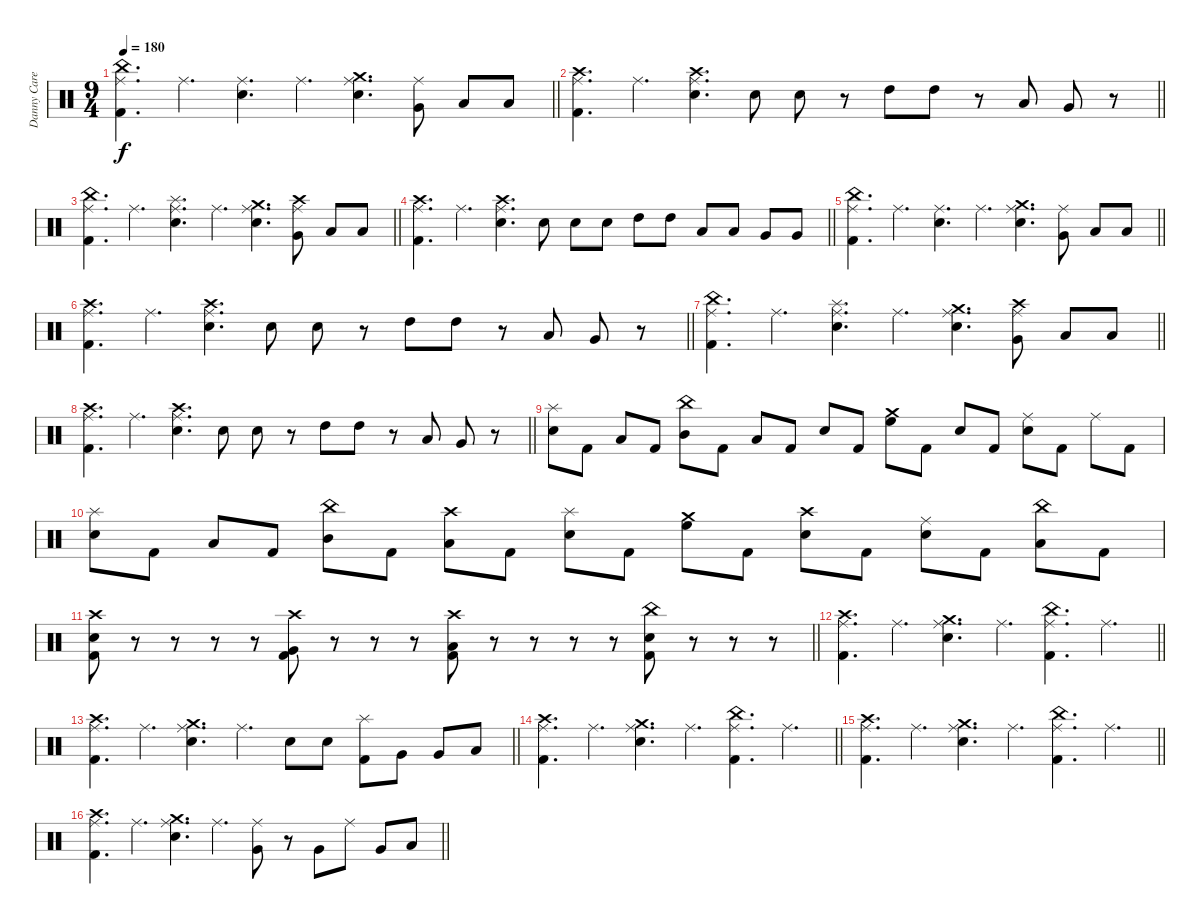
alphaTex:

\track ("Danny Carey" "Danny Care") {instrument percussion}
\staff {score}
\articulation defaults
\ts (9 4)
\tempo 180
\clef neutral
\barLineRight lightlight
\ks c
("China (hit)" "Ride (middle)" "Kick (hit) 2").4{d dy f} "Ride (middle)".4{d} ("Ride (middle)" "Electric Snare (hit)").4{d} "Ride (middle)".4{d} ("Crash medium (hit)" "Ride (middle)" "Electric Snare (hit)").4{d} ("Ride (middle)" "Very Low Tom (hit)").8 "Low Floor Tom (hit)".8 "Low Floor Tom (hit)".8 |
\barLineRight lightlight
("Crash high (hit)" "Ride (middle)" "Kick (hit) 2").4{d} "Ride (middle)".4{d} ("Crash high (hit)" "Ride (middle)" "Electric Snare (hit)").4{d} "Electric Snare (hit)".8 "Electric Snare (hit)".8 r.8 "High Tom (hit)".8 "High Tom (hit)".8 r.8 "Low Tom (hit)".8 "Very Low Tom (hit)".8 r.8 |
\barLineRight lightlight
("China (hit)" "Ride (middle)" "Kick (hit) 2").4{d} "Ride (middle)".4{d} ("Splash (hit)" "Ride (middle)" "Electric Snare (hit)").4{d} "Ride (middle)".4{d} ("Crash medium (hit)" "Ride (middle)" "Electric Snare (hit)").4{d} ("Crash high (hit)" "Ride (middle)" "Very Low Tom (hit)").8 "Low Floor Tom (hit)".8 "Low Floor Tom (hit)".8 |
\barLineRight lightlight
("Crash high (hit)" "Ride (middle)" "Kick (hit) 2").4{d} "Ride (middle)".4{d} ("Crash high (hit)" "Ride (middle)" "Electric Snare (hit)").4{d} "Electric Snare (hit)".8 "Electric Snare (hit)".8 "Electric Snare (hit)".8 "High Tom (hit)".8 "High Tom (hit)".8 "Low Tom (hit)".8 "Low Tom (hit)".8 "Very Low Tom (hit)".8 "Very Low Tom (hit)".8 |
\barLineRight lightlight
("China (hit)" "Ride (middle)" "Kick (hit) 2").4{d} "Ride (middle)".4{d} ("Ride (middle)" "Electric Snare (hit)").4{d} "Ride (middle)".4{d} ("Crash medium (hit)" "Ride (middle)" "Electric Snare (hit)").4{d} ("Ride (middle)" "Very Low Tom (hit)").8 "Low Floor Tom (hit)".8 "Low Floor Tom (hit)".8 |
\barLineRight lightlight
("Crash high (hit)" "Ride (middle)" "Kick (hit) 2").4{d} "Ride (middle)".4{d} ("Crash high (hit)" "Ride (middle)" "Electric Snare (hit)").4{d} "Electric Snare (hit)".8 "Electric Snare (hit)".8 r.8 "High Tom (hit)".8 "High Tom (hit)".8 r.8 "Low Tom (hit)".8 "Very Low Tom (hit)".8 r.8 |
\barLineRight lightlight
("China (hit)" "Ride (middle)" "Kick (hit) 2").4{d} "Ride (middle)".4{d} ("Splash (hit)" "Ride (middle)" "Electric Snare (hit)").4{d} "Ride (middle)".4{d} ("Crash medium (hit)" "Ride (middle)" "Electric Snare (hit)").4{d} ("Crash high (hit)" "Ride (middle)" "Very Low Tom (hit)").8 "Low Floor Tom (hit)".8 "Low Floor Tom (hit)".8 |
\barLineRight lightlight
("Crash high (hit)" "Ride (middle)" "Kick (hit) 2").4{d} "Ride (middle)".4{d} ("Crash high (hit)" "Ride (middle)" "Electric Snare (hit)").4{d} "Electric Snare (hit)".8 "Electric Snare (hit)".8 r.8 "High Tom (hit)".8 "High Tom (hit)".8 r.8 "Low Tom (hit)".8 "Very Low Tom (hit)".8 r.8 |
("Splash (hit)" "Electric Snare (hit)").8 "Kick (hit) 2".8 "Low Tom (hit)".8 "Kick (hit) 2".8 ("China (hit)" "Mid Tom (hit)").8 "Kick (hit) 2".8 "Low Floor Tom (hit)".8 "Kick (hit) 2".8 "Electric Snare (hit)".8 "Kick (hit) 2".8 ("Crash medium (hit)" "High Floor Tom (hit)").8 "Kick (hit) 2".8 "Electric Snare (hit)".8 "Kick (hit) 2".8 ("Ride (middle)" "Electric Snare (hit)").8 "Kick (hit) 2".8 "Ride (middle)".8 "Kick (hit) 2".8 |
("Splash (hit)" "Electric Snare (hit)").8 "Kick (hit) 2".8 "Low Tom (hit)".8 "Kick (hit) 2".8 ("China (hit)" "Mid Tom (hit)").8 "Kick (hit) 2".8 ("Crash high (hit)" "Low Floor Tom (hit)").8 "Kick (hit) 2".8 ("Splash (hit)" "Electric Snare (hit)").8 "Kick (hit) 2".8 ("Crash medium (hit)" "High Floor Tom (hit)").8 "Kick (hit) 2".8 ("Crash high (hit)" "Electric Snare (hit)").8 "Kick (hit) 2".8 ("Ride (middle)" "Electric Snare (hit)").8 "Kick (hit) 2".8 ("China (hit)" "Low Floor Tom (hit)").8 "Kick (hit) 2".8 |
\barLineRight lightlight
("Crash high (hit)" "Electric Snare (hit)" "Kick (hit) 2").8 r.8 r.8 r.8 r.8 ("Crash high (hit)" "Very Low Tom (hit)" "Kick (hit) 2").8 r.8 r.8 r.8 ("Crash high (hit)" "Low Floor Tom (hit)" "Kick (hit) 2").8 r.8 r.8 r.8 r.8 ("China (hit)" "Electric Snare (hit)" "Kick (hit) 2").8 r.8 r.8 r.8 |
\barLineRight lightlight
("Crash high (hit)" "Ride (middle)" "Kick (hit) 2").4{d} "Ride (middle)".4{d} ("Crash medium (hit)" "Ride (middle)" "Electric Snare (hit)").4{d} "Ride (middle)".4{d} ("China (hit)" "Ride (middle)" "Kick (hit) 2").4{d} "Ride (middle)".4{d} |
\barLineRight lightlight
("Crash high (hit)" "Ride (middle)" "Kick (hit) 2").4{d} "Ride (middle)".4{d} ("Crash medium (hit)" "Ride (middle)" "Electric Snare (hit)").4{d} "Ride (middle)".4{d} "Electric Snare (hit)".8 "Electric Snare (hit)".8 ("Splash (hit)" "Kick (hit) 2").8 "Very Low Tom (hit)".8 "Very Low Tom (hit)".8 "Low Floor Tom (hit)".8 |
\barLineRight lightlight
("Crash high (hit)" "Ride (middle)" "Kick (hit) 2").4{d} "Ride (middle)".4{d} ("Crash medium (hit)" "Ride (middle)" "Electric Snare (hit)").4{d} "Ride (middle)".4{d} ("China (hit)" "Ride (middle)" "Kick (hit) 2").4{d} "Ride (middle)".4{d} |
\barLineRight lightlight
("Crash high (hit)" "Ride (middle)" "Kick (hit) 2").4{d} "Ride (middle)".4{d} ("Crash medium (hit)" "Ride (middle)" "Electric Snare (hit)").4{d} "Ride (middle)".4{d} ("China (hit)" "Ride (middle)" "Kick (hit) 2").4{d} "Ride (middle)".4{d} |
\barLineRight lightlight
("Crash high (hit)" "Ride (middle)" "Kick (hit) 2").4{d} "Ride (middle)".4{d} ("Crash medium (hit)" "Ride (middle)" "Electric Snare (hit)").4{d} "Ride (middle)".4{d} ("Ride (middle)" "Very Low Tom (hit)").8 r.8 "Very Low Tom (hit)".8 "Ride (middle)".8 "Very Low Tom (hit)".8 "Low Floor Tom (hit)".8
